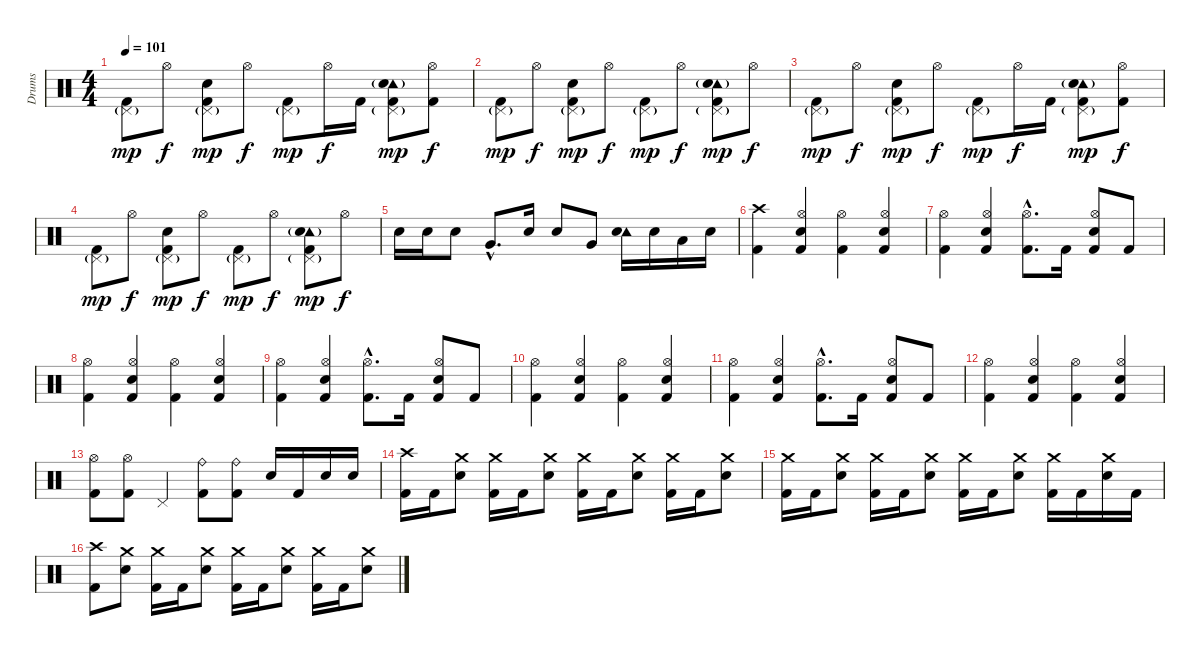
\track ("Drums" "Drums") {instrument percussion}
\staff {score}
\articulation defaults
\ts (4 4)
\tempo 101
\clef neutral
\ks c
("Pedal Hi-Hat (hit)"{g} "Kick (hit) 2").8{dy mp} "Hi-Hat (open)".8{dy f} ("Pedal Hi-Hat (hit)"{g} "Snare (hit) 2" "Kick (hit) 2").8{dy mp} "Hi-Hat (open)".8{dy f} ("Pedal Hi-Hat (hit)"{g} "Kick (hit) 2").8{dy mp} "Hi-Hat (open)".16{dy f} "Kick (hit) 2".16 ("Tambourine (hit)"{g} "Pedal Hi-Hat (hit)"{g} "Snare (hit) 2" "Kick (hit) 2").8{dy mp} ("Hi-Hat (open)" "Kick (hit) 2").8{dy f} |
("Pedal Hi-Hat (hit)"{g} "Kick (hit) 2").8{dy mp} "Hi-Hat (open)".8{dy f} ("Pedal Hi-Hat (hit)"{g} "Snare (hit) 2" "Kick (hit) 2").8{dy mp} "Hi-Hat (open)".8{dy f} ("Pedal Hi-Hat (hit)"{g} "Kick (hit) 2").8{dy mp} "Hi-Hat (open)".8{dy f} ("Tambourine (hit)"{g} "Pedal Hi-Hat (hit)"{g} "Snare (hit) 2" "Kick (hit) 2").8{dy mp} "Hi-Hat (open)".8{dy f} |
("Pedal Hi-Hat (hit)"{g} "Kick (hit) 2").8{dy mp} "Hi-Hat (open)".8{dy f} ("Pedal Hi-Hat (hit)"{g} "Snare (hit) 2" "Kick (hit) 2").8{dy mp} "Hi-Hat (open)".8{dy f} ("Pedal Hi-Hat (hit)"{g} "Kick (hit) 2").8{dy mp} "Hi-Hat (open)".16{dy f} "Kick (hit) 2".16 ("Tambourine (hit)"{g} "Pedal Hi-Hat (hit)"{g} "Snare (hit) 2" "Kick (hit) 2").8{dy mp} ("Hi-Hat (open)" "Kick (hit) 2").8{dy f} |
("Pedal Hi-Hat (hit)"{g} "Kick (hit) 2").8{dy mp} "Hi-Hat (open)".8{dy f} ("Pedal Hi-Hat (hit)"{g} "Snare (hit) 2" "Kick (hit) 2").8{dy mp} "Hi-Hat (open)".8{dy f} ("Pedal Hi-Hat (hit)"{g} "Kick (hit) 2").8{dy mp} "Hi-Hat (open)".8{dy f} ("Tambourine (hit)"{g} "Pedal Hi-Hat (hit)"{g} "Snare (hit) 2" "Kick (hit) 2").8{dy mp} "Hi-Hat (open)".8{dy f} |
"Snare (hit) 2".16 "Snare (hit) 2".16 "Snare (hit) 2".8 "Very Low Tom (hit)"{hac}.8{d} "Snare (hit) 2".16 "Snare (hit) 2".8 "Very Low Tom (hit)".8 ("Tambourine (hit)" "Snare (hit) 2").16 "Snare (hit) 2".16 "Low Tom (hit)".16 "Snare (hit) 2".16 |
("Crash high (hit)" "Kick (hit) 2").4 ("Hi-Hat (open)" "Snare (hit) 2" "Kick (hit) 2").4 ("Hi-Hat (open)" "Kick (hit) 2").4 ("Hi-Hat (open)" "Snare (hit) 2" "Kick (hit) 2").4 |
("Hi-Hat (open)" "Kick (hit) 2").4 ("Hi-Hat (open)" "Snare (hit) 2" "Kick (hit) 2").4 ("Hi-Hat (open)"{hac} "Kick (hit) 2"{hac}).8{d} "Kick (hit) 2".16 ("Hi-Hat (open)" "Snare (hit) 2" "Kick (hit) 2").8 "Kick (hit) 2".8 |
("Hi-Hat (open)" "Kick (hit) 2").4 ("Hi-Hat (open)" "Snare (hit) 2" "Kick (hit) 2").4 ("Hi-Hat (open)" "Kick (hit) 2").4 ("Hi-Hat (open)" "Snare (hit) 2" "Kick (hit) 2").4 |
("Hi-Hat (open)" "Kick (hit) 2").4 ("Hi-Hat (open)" "Snare (hit) 2" "Kick (hit) 2").4 ("Hi-Hat (open)"{hac} "Kick (hit) 2"{hac}).8{d} "Kick (hit) 2".16 ("Hi-Hat (open)" "Snare (hit) 2" "Kick (hit) 2").8 "Kick (hit) 2".8 |
("Hi-Hat (open)" "Kick (hit) 2").4 ("Hi-Hat (open)" "Snare (hit) 2" "Kick (hit) 2").4 ("Hi-Hat (open)" "Kick (hit) 2").4 ("Hi-Hat (open)" "Snare (hit) 2" "Kick (hit) 2").4 |
("Hi-Hat (open)" "Kick (hit) 2").4 ("Hi-Hat (open)" "Snare (hit) 2" "Kick (hit) 2").4 ("Hi-Hat (open)"{hac} "Kick (hit) 2"{hac}).8{d} "Kick (hit) 2".16 ("Hi-Hat (open)" "Snare (hit) 2" "Kick (hit) 2").8 "Kick (hit) 2".8 |
("Hi-Hat (open)" "Kick (hit) 2").4 ("Hi-Hat (open)" "Snare (hit) 2" "Kick (hit) 2").4 ("Hi-Hat (open)" "Kick (hit) 2").4 ("Hi-Hat (open)" "Snare (hit) 2" "Kick (hit) 2").4 |
("Hi-Hat (open)" "Kick (hit) 2").8 ("Hi-Hat (open)" "Kick (hit) 2").8 "Pedal Hi-Hat (hit)".4 ("Ride (bell)" "Kick (hit) 2").8 ("Ride (bell)" "Kick (hit) 2").8 "Snare (hit) 2".16 "Kick (hit) 2".16 "Snare (hit) 2".16 "Snare (hit) 2".16 |
("Crash high (hit)" "Kick (hit) 2").16 "Kick (hit) 2".16 ("Crash medium (hit)" "Snare (hit) 2").8 ("Crash medium (hit)" "Kick (hit) 2").16 "Kick (hit) 2".16 ("Crash medium (hit)" "Snare (hit) 2").8 ("Crash medium (hit)" "Kick (hit) 2").16 "Kick (hit) 2".16 ("Crash medium (hit)" "Snare (hit) 2").8 ("Crash medium (hit)" "Kick (hit) 2").16 "Kick (hit) 2".16 ("Crash medium (hit)" "Snare (hit) 2").8 |
("Crash medium (hit)" "Kick (hit) 2").16 "Kick (hit) 2".16 ("Crash medium (hit)" "Snare (hit) 2").8 ("Crash medium (hit)" "Kick (hit) 2").16 "Kick (hit) 2".16 ("Crash medium (hit)" "Snare (hit) 2").8 ("Crash medium (hit)" "Kick (hit) 2").16 "Kick (hit) 2".16 ("Crash medium (hit)" "Snare (hit) 2").8 ("Crash medium (hit)" "Kick (hit) 2").16 "Kick (hit) 2".16 ("Crash medium (hit)" "Snare (hit) 2").16 "Kick (hit) 2".16 |
("Crash high (hit)" "Kick (hit) 2").8 ("Crash medium (hit)" "Snare (hit) 2").8 ("Crash medium (hit)" "Kick (hit) 2").16 "Kick (hit) 2".16 ("Crash medium (hit)" "Snare (hit) 2").8 ("Crash medium (hit)" "Kick (hit) 2").16 "Kick (hit) 2".16 ("Crash medium (hit)" "Snare (hit) 2").8 ("Crash medium (hit)" "Kick (hit) 2").16 "Kick (hit) 2".16 ("Crash medium (hit)" "Snare (hit) 2").8
